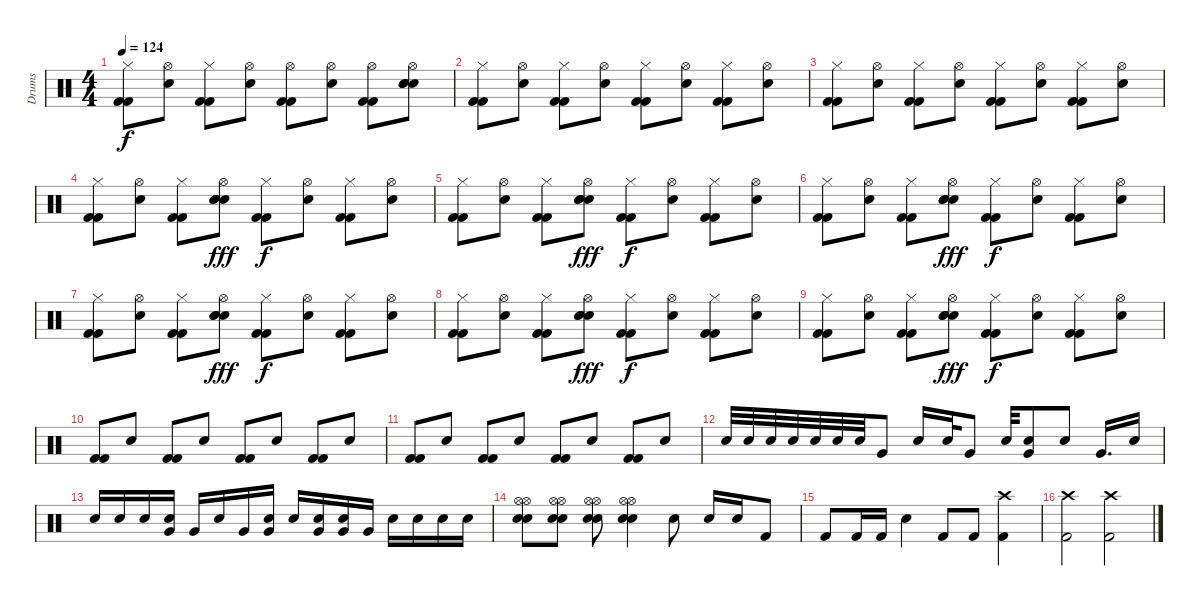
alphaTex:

\track ("Drums" "Drums") {instrument percussion}
\staff {score}
\articulation defaults
\ts (4 4)
\tempo 124
\clef neutral
\ks c
("Kick (hit) 2" "Kick (hit) 2" "Hi-Hat (closed)").8{dy f} ("Hand Clap (hit)" "Hi-Hat (open)").8 ("Kick (hit) 2" "Kick (hit) 2" "Hi-Hat (closed)").8 ("Hand Clap (hit)" "Hi-Hat (open)").8 ("Kick (hit) 2" "Kick (hit) 2" "Hi-Hat (open)").8 ("Hand Clap (hit)" "Hi-Hat (open)").8 ("Kick (hit) 2" "Kick (hit) 2" "Hi-Hat (open)").8 ("Hand Clap (hit)" "Electric Snare (hit)" "Electric Snare (hit)" "Hi-Hat (open)").8 |
("Kick (hit) 2" "Kick (hit) 2" "Hi-Hat (closed)").8 ("Hand Clap (hit)" "Hi-Hat (open)").8 ("Kick (hit) 2" "Kick (hit) 2" "Hi-Hat (closed)").8 ("Hand Clap (hit)" "Hi-Hat (open)").8 ("Kick (hit) 2" "Kick (hit) 2" "Hi-Hat (closed)").8 ("Hand Clap (hit)" "Hi-Hat (open)").8 ("Kick (hit) 2" "Kick (hit) 2" "Hi-Hat (closed)").8 ("Hand Clap (hit)" "Hi-Hat (open)").8 |
("Kick (hit) 2" "Kick (hit) 2" "Hi-Hat (closed)").8 ("Hand Clap (hit)" "Hi-Hat (open)").8 ("Kick (hit) 2" "Kick (hit) 2" "Hi-Hat (closed)").8 ("Hand Clap (hit)" "Hi-Hat (open)").8 ("Kick (hit) 2" "Kick (hit) 2" "Hi-Hat (closed)").8 ("Hand Clap (hit)" "Hi-Hat (open)").8 ("Kick (hit) 2" "Kick (hit) 2" "Hi-Hat (closed)").8 ("Hand Clap (hit)" "Hi-Hat (open)").8 |
("Kick (hit) 2" "Kick (hit) 2" "Hi-Hat (closed)").8 ("Hand Clap (hit)" "Hi-Hat (open)").8 ("Kick (hit) 2" "Kick (hit) 2" "Hi-Hat (closed)").8 ("Hand Clap (hit)" "Electric Snare (hit)" "Electric Snare (hit)" "Hi-Hat (open)").8{dy fff} ("Kick (hit) 2" "Kick (hit) 2" "Hi-Hat (closed)").8{dy f} ("Hand Clap (hit)" "Hi-Hat (open)").8 ("Kick (hit) 2" "Kick (hit) 2" "Hi-Hat (closed)").8 ("Hand Clap (hit)" "Hi-Hat (open)").8 |
("Kick (hit) 2" "Kick (hit) 2" "Hi-Hat (closed)").8 ("Hand Clap (hit)" "Hi-Hat (open)").8 ("Kick (hit) 2" "Kick (hit) 2" "Hi-Hat (closed)").8 ("Hand Clap (hit)" "Electric Snare (hit)" "Electric Snare (hit)" "Hi-Hat (open)").8{dy fff} ("Kick (hit) 2" "Kick (hit) 2" "Hi-Hat (closed)").8{dy f} ("Hand Clap (hit)" "Hi-Hat (open)").8 ("Kick (hit) 2" "Kick (hit) 2" "Hi-Hat (closed)").8 ("Hand Clap (hit)" "Hi-Hat (open)").8 |
("Kick (hit) 2" "Kick (hit) 2" "Hi-Hat (closed)").8 ("Hand Clap (hit)" "Hi-Hat (open)").8 ("Kick (hit) 2" "Kick (hit) 2" "Hi-Hat (closed)").8 ("Hand Clap (hit)" "Electric Snare (hit)" "Electric Snare (hit)" "Hi-Hat (open)").8{dy fff} ("Kick (hit) 2" "Kick (hit) 2" "Hi-Hat (closed)").8{dy f} ("Hand Clap (hit)" "Hi-Hat (open)").8 ("Kick (hit) 2" "Kick (hit) 2" "Hi-Hat (closed)").8 ("Hand Clap (hit)" "Hi-Hat (open)").8 |
("Kick (hit) 2" "Kick (hit) 2" "Hi-Hat (closed)").8 ("Hand Clap (hit)" "Hi-Hat (open)").8 ("Kick (hit) 2" "Kick (hit) 2" "Hi-Hat (closed)").8 ("Hand Clap (hit)" "Electric Snare (hit)" "Electric Snare (hit)" "Hi-Hat (open)").8{dy fff} ("Kick (hit) 2" "Kick (hit) 2" "Hi-Hat (closed)").8{dy f} ("Hand Clap (hit)" "Hi-Hat (open)").8 ("Kick (hit) 2" "Kick (hit) 2" "Hi-Hat (closed)").8 ("Hand Clap (hit)" "Hi-Hat (open)").8 |
("Kick (hit) 2" "Kick (hit) 2" "Hi-Hat (closed)").8 ("Hand Clap (hit)" "Hi-Hat (open)").8 ("Kick (hit) 2" "Kick (hit) 2" "Hi-Hat (closed)").8 ("Hand Clap (hit)" "Electric Snare (hit)" "Electric Snare (hit)" "Hi-Hat (open)").8{dy fff} ("Kick (hit) 2" "Kick (hit) 2" "Hi-Hat (closed)").8{dy f} ("Hand Clap (hit)" "Hi-Hat (open)").8 ("Kick (hit) 2" "Kick (hit) 2" "Hi-Hat (closed)").8 ("Hand Clap (hit)" "Hi-Hat (open)").8 |
("Kick (hit) 2" "Kick (hit) 2" "Hi-Hat (closed)").8 ("Hand Clap (hit)" "Hi-Hat (open)").8 ("Kick (hit) 2" "Kick (hit) 2" "Hi-Hat (closed)").8 ("Hand Clap (hit)" "Electric Snare (hit)" "Electric Snare (hit)" "Hi-Hat (open)").8{dy fff} ("Kick (hit) 2" "Kick (hit) 2" "Hi-Hat (closed)").8{dy f} ("Hand Clap (hit)" "Hi-Hat (open)").8 ("Kick (hit) 2" "Kick (hit) 2" "Hi-Hat (closed)").8 ("Hand Clap (hit)" "Hi-Hat (open)").8 |
("Kick (hit) 2" "Kick (hit) 2").8 "Hand Clap (hit)".8 ("Kick (hit) 2" "Kick (hit) 2").8 "Hand Clap (hit)".8 ("Kick (hit) 2" "Kick (hit) 2").8 "Hand Clap (hit)".8 ("Kick (hit) 2" "Kick (hit) 2").8 "Hand Clap (hit)".8 |
("Kick (hit) 2" "Kick (hit) 2").8 "Hand Clap (hit)".8 ("Kick (hit) 2" "Kick (hit) 2").8 "Hand Clap (hit)".8 ("Kick (hit) 2" "Kick (hit) 2").8 "Hand Clap (hit)".8 ("Kick (hit) 2" "Kick (hit) 2").8 "Hand Clap (hit)".8 |
"Electric Snare (hit)".32 "Electric Snare (hit)".32 "Electric Snare (hit)".32 "Electric Snare (hit)".32 "Electric Snare (hit)".32 "Electric Snare (hit)".32 "Electric Snare (hit)".32 "Very Low Tom (hit)".8 "Electric Snare (hit)".16 "Electric Snare (hit)".32 "Very Low Tom (hit)".8 "Electric Snare (hit)".32 ("Electric Snare (hit)" "Very Low Tom (hit)").8 "Electric Snare (hit)".8 "Very Low Tom (hit)".16{d} "Electric Snare (hit)".16 |
"Electric Snare (hit)".16 "Electric Snare (hit)".16 "Electric Snare (hit)".16 ("Electric Snare (hit)" "Very Low Tom (hit)").16 "Very Low Tom (hit)".16 "Electric Snare (hit)".16 "Very Low Tom (hit)".16 ("Electric Snare (hit)" "Very Low Tom (hit)").16 "Electric Snare (hit)".16 ("Electric Snare (hit)" "Very Low Tom (hit)").16 ("Electric Snare (hit)" "Very Low Tom (hit)").16 "Very Low Tom (hit)".16 "Electric Snare (hit)".16 "Electric Snare (hit)".16 "Electric Snare (hit)".16 "Electric Snare (hit)".16 |
("Hand Clap (hit)" "Hi-Hat (open)" "Electric Snare (hit)" "Hi-Hat (open)").8 ("Hand Clap (hit)" "Hi-Hat (open)" "Electric Snare (hit)" "Hi-Hat (open)").8 ("Hand Clap (hit)" "Hi-Hat (open)" "Electric Snare (hit)" "Hi-Hat (open)").8 ("Hand Clap (hit)" "Hi-Hat (open)" "Electric Snare (hit)" "Hi-Hat (open)").4 "Electric Snare (hit)".8 "Electric Snare (hit)".16 "Snare (hit) 2".16 "Kick (hit) 2".8 |
"Kick (hit) 2".8 "Kick (hit) 2".16 "Kick (hit) 2".16 "Electric Snare (hit)".4 "Kick (hit) 2".8 "Kick (hit) 2".8 ("Kick (hit) 2" "Crash high (hit)").4 |
("Kick (hit) 2" "Crash high (hit)").2 ("Kick (hit) 2" "Crash high (hit)").2
